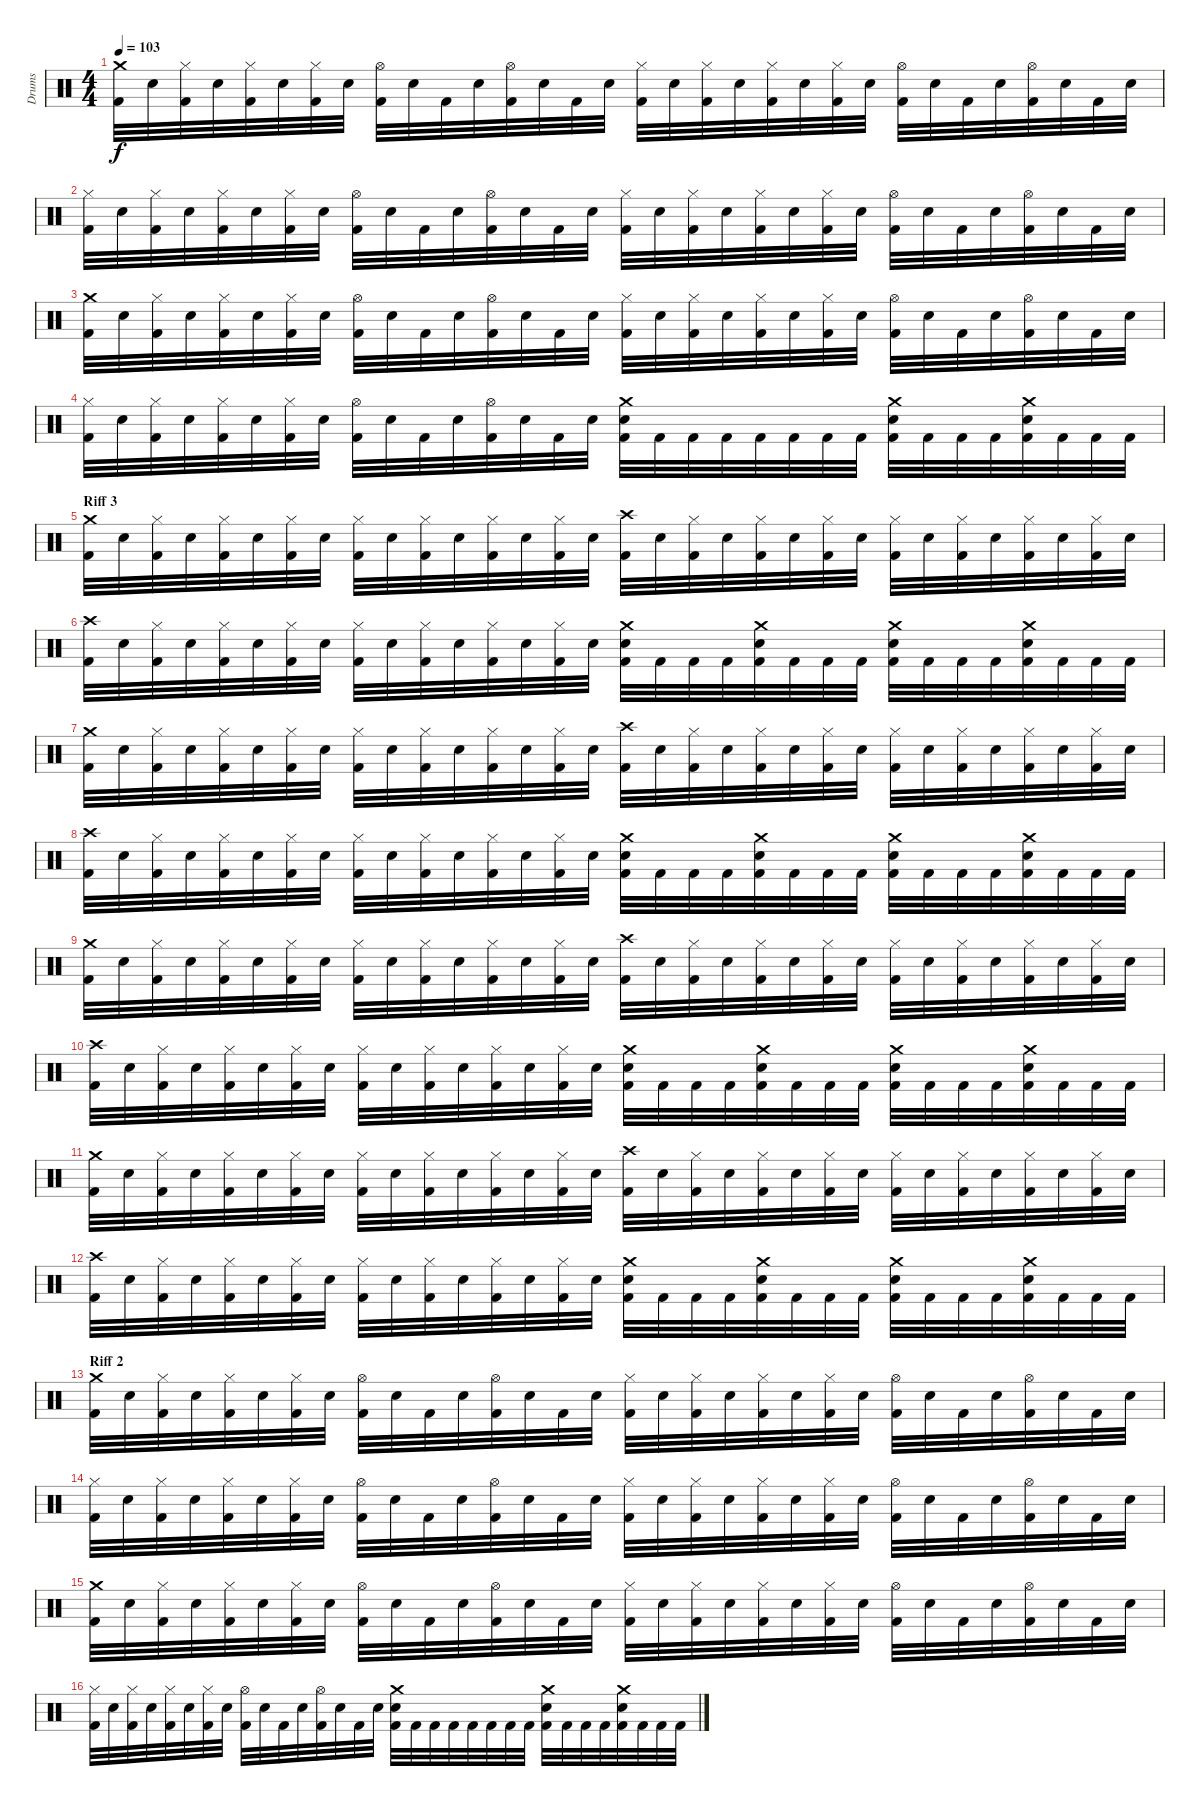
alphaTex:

\track ("Drums" "Drums") {instrument percussion}
\staff {score}
\articulation defaults
\ts (4 4)
\tempo 103
\clef neutral
\ks c
("Crash medium (hit)" "Kick (hit) 2").32{dy f} "Electric Snare (hit)".32 ("Hi-Hat (closed)" "Kick (hit) 2").32 "Electric Snare (hit)".32 ("Hi-Hat (closed)" "Kick (hit) 2").32 "Electric Snare (hit)".32 ("Hi-Hat (closed)" "Kick (hit) 2").32 "Electric Snare (hit)".32 ("Hi-Hat (open)" "Kick (hit) 2").32 "Electric Snare (hit)".32 "Kick (hit) 2".32 "Electric Snare (hit)".32 ("Hi-Hat (open)" "Kick (hit) 2").32 "Electric Snare (hit)".32 "Kick (hit) 2".32 "Electric Snare (hit)".32 ("Hi-Hat (closed)" "Kick (hit) 2").32 "Electric Snare (hit)".32 ("Hi-Hat (closed)" "Kick (hit) 2").32 "Electric Snare (hit)".32 ("Hi-Hat (closed)" "Kick (hit) 2").32 "Electric Snare (hit)".32 ("Hi-Hat (closed)" "Kick (hit) 2").32 "Electric Snare (hit)".32 ("Hi-Hat (open)" "Kick (hit) 2").32 "Electric Snare (hit)".32 "Kick (hit) 2".32 "Electric Snare (hit)".32 ("Hi-Hat (open)" "Kick (hit) 2").32 "Electric Snare (hit)".32 "Kick (hit) 2".32 "Electric Snare (hit)".32 |
("Hi-Hat (closed)" "Kick (hit) 2").32 "Electric Snare (hit)".32 ("Hi-Hat (closed)" "Kick (hit) 2").32 "Electric Snare (hit)".32 ("Hi-Hat (closed)" "Kick (hit) 2").32 "Electric Snare (hit)".32 ("Hi-Hat (closed)" "Kick (hit) 2").32 "Electric Snare (hit)".32 ("Hi-Hat (open)" "Kick (hit) 2").32 "Electric Snare (hit)".32 "Kick (hit) 2".32 "Electric Snare (hit)".32 ("Hi-Hat (open)" "Kick (hit) 2").32 "Electric Snare (hit)".32 "Kick (hit) 2".32 "Electric Snare (hit)".32 ("Hi-Hat (closed)" "Kick (hit) 2").32 "Electric Snare (hit)".32 ("Hi-Hat (closed)" "Kick (hit) 2").32 "Electric Snare (hit)".32 ("Hi-Hat (closed)" "Kick (hit) 2").32 "Electric Snare (hit)".32 ("Hi-Hat (closed)" "Kick (hit) 2").32 "Electric Snare (hit)".32 ("Hi-Hat (open)" "Kick (hit) 2").32 "Electric Snare (hit)".32 "Kick (hit) 2".32 "Electric Snare (hit)".32 ("Hi-Hat (open)" "Kick (hit) 2").32 "Electric Snare (hit)".32 "Kick (hit) 2".32 "Electric Snare (hit)".32 |
("Crash medium (hit)" "Kick (hit) 2").32 "Electric Snare (hit)".32 ("Hi-Hat (closed)" "Kick (hit) 2").32 "Electric Snare (hit)".32 ("Hi-Hat (closed)" "Kick (hit) 2").32 "Electric Snare (hit)".32 ("Hi-Hat (closed)" "Kick (hit) 2").32 "Electric Snare (hit)".32 ("Hi-Hat (open)" "Kick (hit) 2").32 "Electric Snare (hit)".32 "Kick (hit) 2".32 "Electric Snare (hit)".32 ("Hi-Hat (open)" "Kick (hit) 2").32 "Electric Snare (hit)".32 "Kick (hit) 2".32 "Electric Snare (hit)".32 ("Hi-Hat (closed)" "Kick (hit) 2").32 "Electric Snare (hit)".32 ("Hi-Hat (closed)" "Kick (hit) 2").32 "Electric Snare (hit)".32 ("Hi-Hat (closed)" "Kick (hit) 2").32 "Electric Snare (hit)".32 ("Hi-Hat (closed)" "Kick (hit) 2").32 "Electric Snare (hit)".32 ("Hi-Hat (open)" "Kick (hit) 2").32 "Electric Snare (hit)".32 "Kick (hit) 2".32 "Electric Snare (hit)".32 ("Hi-Hat (open)" "Kick (hit) 2").32 "Electric Snare (hit)".32 "Kick (hit) 2".32 "Electric Snare (hit)".32 |
("Hi-Hat (closed)" "Kick (hit) 2").32 "Electric Snare (hit)".32 ("Hi-Hat (closed)" "Kick (hit) 2").32 "Electric Snare (hit)".32 ("Hi-Hat (closed)" "Kick (hit) 2").32 "Electric Snare (hit)".32 ("Hi-Hat (closed)" "Kick (hit) 2").32 "Electric Snare (hit)".32 ("Hi-Hat (open)" "Kick (hit) 2").32 "Electric Snare (hit)".32 "Kick (hit) 2".32 "Electric Snare (hit)".32 ("Hi-Hat (open)" "Kick (hit) 2").32 "Electric Snare (hit)".32 "Kick (hit) 2".32 "Electric Snare (hit)".32 ("Crash medium (hit)" "Electric Snare (hit)" "Kick (hit) 2").32 "Kick (hit) 2".32 "Kick (hit) 2".32 "Kick (hit) 2".32 "Kick (hit) 2".32 "Kick (hit) 2".32 "Kick (hit) 2".32 "Kick (hit) 2".32 ("Crash medium (hit)" "Electric Snare (hit)" "Kick (hit) 2").32 "Kick (hit) 2".32 "Kick (hit) 2".32 "Kick (hit) 2".32 ("Crash medium (hit)" "Electric Snare (hit)" "Kick (hit) 2").32 "Kick (hit) 2".32 "Kick (hit) 2".32 "Kick (hit) 2".32 |
\section ("" "Riff 3")
("Crash medium (hit)" "Kick (hit) 2").32 "Electric Snare (hit)".32 ("Hi-Hat (closed)" "Kick (hit) 2").32 "Electric Snare (hit)".32 ("Hi-Hat (closed)" "Kick (hit) 2").32 "Electric Snare (hit)".32 ("Hi-Hat (closed)" "Kick (hit) 2").32 "Electric Snare (hit)".32 ("Hi-Hat (closed)" "Kick (hit) 2").32 "Electric Snare (hit)".32 ("Hi-Hat (closed)" "Kick (hit) 2").32 "Electric Snare (hit)".32 ("Hi-Hat (closed)" "Kick (hit) 2").32 "Electric Snare (hit)".32 ("Hi-Hat (closed)" "Kick (hit) 2").32 "Electric Snare (hit)".32 ("Crash high (hit)" "Kick (hit) 2").32 "Electric Snare (hit)".32 ("Hi-Hat (closed)" "Kick (hit) 2").32 "Electric Snare (hit)".32 ("Hi-Hat (closed)" "Kick (hit) 2").32 "Electric Snare (hit)".32 ("Hi-Hat (closed)" "Kick (hit) 2").32 "Electric Snare (hit)".32 ("Hi-Hat (closed)" "Kick (hit) 2").32 "Electric Snare (hit)".32 ("Hi-Hat (closed)" "Kick (hit) 2").32 "Electric Snare (hit)".32 ("Hi-Hat (closed)" "Kick (hit) 2").32 "Electric Snare (hit)".32 ("Hi-Hat (closed)" "Kick (hit) 2").32 "Electric Snare (hit)".32 |
("Crash high (hit)" "Kick (hit) 2").32 "Electric Snare (hit)".32 ("Hi-Hat (closed)" "Kick (hit) 2").32 "Electric Snare (hit)".32 ("Hi-Hat (closed)" "Kick (hit) 2").32 "Electric Snare (hit)".32 ("Hi-Hat (closed)" "Kick (hit) 2").32 "Electric Snare (hit)".32 ("Hi-Hat (closed)" "Kick (hit) 2").32 "Electric Snare (hit)".32 ("Hi-Hat (closed)" "Kick (hit) 2").32 "Electric Snare (hit)".32 ("Hi-Hat (closed)" "Kick (hit) 2").32 "Electric Snare (hit)".32 ("Hi-Hat (closed)" "Kick (hit) 2").32 "Electric Snare (hit)".32 ("Crash medium (hit)" "Electric Snare (hit)" "Kick (hit) 2").32 "Kick (hit) 2".32 "Kick (hit) 2".32 "Kick (hit) 2".32 ("Crash medium (hit)" "Electric Snare (hit)" "Kick (hit) 2").32 "Kick (hit) 2".32 "Kick (hit) 2".32 "Kick (hit) 2".32 ("Crash medium (hit)" "Electric Snare (hit)" "Kick (hit) 2").32 "Kick (hit) 2".32 "Kick (hit) 2".32 "Kick (hit) 2".32 ("Crash medium (hit)" "Electric Snare (hit)" "Kick (hit) 2").32 "Kick (hit) 2".32 "Kick (hit) 2".32 "Kick (hit) 2".32 |
("Crash medium (hit)" "Kick (hit) 2").32 "Electric Snare (hit)".32 ("Hi-Hat (closed)" "Kick (hit) 2").32 "Electric Snare (hit)".32 ("Hi-Hat (closed)" "Kick (hit) 2").32 "Electric Snare (hit)".32 ("Hi-Hat (closed)" "Kick (hit) 2").32 "Electric Snare (hit)".32 ("Hi-Hat (closed)" "Kick (hit) 2").32 "Electric Snare (hit)".32 ("Hi-Hat (closed)" "Kick (hit) 2").32 "Electric Snare (hit)".32 ("Hi-Hat (closed)" "Kick (hit) 2").32 "Electric Snare (hit)".32 ("Hi-Hat (closed)" "Kick (hit) 2").32 "Electric Snare (hit)".32 ("Crash high (hit)" "Kick (hit) 2").32 "Electric Snare (hit)".32 ("Hi-Hat (closed)" "Kick (hit) 2").32 "Electric Snare (hit)".32 ("Hi-Hat (closed)" "Kick (hit) 2").32 "Electric Snare (hit)".32 ("Hi-Hat (closed)" "Kick (hit) 2").32 "Electric Snare (hit)".32 ("Hi-Hat (closed)" "Kick (hit) 2").32 "Electric Snare (hit)".32 ("Hi-Hat (closed)" "Kick (hit) 2").32 "Electric Snare (hit)".32 ("Hi-Hat (closed)" "Kick (hit) 2").32 "Electric Snare (hit)".32 ("Hi-Hat (closed)" "Kick (hit) 2").32 "Electric Snare (hit)".32 |
("Crash high (hit)" "Kick (hit) 2").32 "Electric Snare (hit)".32 ("Hi-Hat (closed)" "Kick (hit) 2").32 "Electric Snare (hit)".32 ("Hi-Hat (closed)" "Kick (hit) 2").32 "Electric Snare (hit)".32 ("Hi-Hat (closed)" "Kick (hit) 2").32 "Electric Snare (hit)".32 ("Hi-Hat (closed)" "Kick (hit) 2").32 "Electric Snare (hit)".32 ("Hi-Hat (closed)" "Kick (hit) 2").32 "Electric Snare (hit)".32 ("Hi-Hat (closed)" "Kick (hit) 2").32 "Electric Snare (hit)".32 ("Hi-Hat (closed)" "Kick (hit) 2").32 "Electric Snare (hit)".32 ("Crash medium (hit)" "Electric Snare (hit)" "Kick (hit) 2").32 "Kick (hit) 2".32 "Kick (hit) 2".32 "Kick (hit) 2".32 ("Crash medium (hit)" "Electric Snare (hit)" "Kick (hit) 2").32 "Kick (hit) 2".32 "Kick (hit) 2".32 "Kick (hit) 2".32 ("Crash medium (hit)" "Electric Snare (hit)" "Kick (hit) 2").32 "Kick (hit) 2".32 "Kick (hit) 2".32 "Kick (hit) 2".32 ("Crash medium (hit)" "Electric Snare (hit)" "Kick (hit) 2").32 "Kick (hit) 2".32 "Kick (hit) 2".32 "Kick (hit) 2".32 |
("Crash medium (hit)" "Kick (hit) 2").32 "Electric Snare (hit)".32 ("Hi-Hat (closed)" "Kick (hit) 2").32 "Electric Snare (hit)".32 ("Hi-Hat (closed)" "Kick (hit) 2").32 "Electric Snare (hit)".32 ("Hi-Hat (closed)" "Kick (hit) 2").32 "Electric Snare (hit)".32 ("Hi-Hat (closed)" "Kick (hit) 2").32 "Electric Snare (hit)".32 ("Hi-Hat (closed)" "Kick (hit) 2").32 "Electric Snare (hit)".32 ("Hi-Hat (closed)" "Kick (hit) 2").32 "Electric Snare (hit)".32 ("Hi-Hat (closed)" "Kick (hit) 2").32 "Electric Snare (hit)".32 ("Crash high (hit)" "Kick (hit) 2").32 "Electric Snare (hit)".32 ("Hi-Hat (closed)" "Kick (hit) 2").32 "Electric Snare (hit)".32 ("Hi-Hat (closed)" "Kick (hit) 2").32 "Electric Snare (hit)".32 ("Hi-Hat (closed)" "Kick (hit) 2").32 "Electric Snare (hit)".32 ("Hi-Hat (closed)" "Kick (hit) 2").32 "Electric Snare (hit)".32 ("Hi-Hat (closed)" "Kick (hit) 2").32 "Electric Snare (hit)".32 ("Hi-Hat (closed)" "Kick (hit) 2").32 "Electric Snare (hit)".32 ("Hi-Hat (closed)" "Kick (hit) 2").32 "Electric Snare (hit)".32 |
("Crash high (hit)" "Kick (hit) 2").32 "Electric Snare (hit)".32 ("Hi-Hat (closed)" "Kick (hit) 2").32 "Electric Snare (hit)".32 ("Hi-Hat (closed)" "Kick (hit) 2").32 "Electric Snare (hit)".32 ("Hi-Hat (closed)" "Kick (hit) 2").32 "Electric Snare (hit)".32 ("Hi-Hat (closed)" "Kick (hit) 2").32 "Electric Snare (hit)".32 ("Hi-Hat (closed)" "Kick (hit) 2").32 "Electric Snare (hit)".32 ("Hi-Hat (closed)" "Kick (hit) 2").32 "Electric Snare (hit)".32 ("Hi-Hat (closed)" "Kick (hit) 2").32 "Electric Snare (hit)".32 ("Crash medium (hit)" "Electric Snare (hit)" "Kick (hit) 2").32 "Kick (hit) 2".32 "Kick (hit) 2".32 "Kick (hit) 2".32 ("Crash medium (hit)" "Electric Snare (hit)" "Kick (hit) 2").32 "Kick (hit) 2".32 "Kick (hit) 2".32 "Kick (hit) 2".32 ("Crash medium (hit)" "Electric Snare (hit)" "Kick (hit) 2").32 "Kick (hit) 2".32 "Kick (hit) 2".32 "Kick (hit) 2".32 ("Crash medium (hit)" "Electric Snare (hit)" "Kick (hit) 2").32 "Kick (hit) 2".32 "Kick (hit) 2".32 "Kick (hit) 2".32 |
("Crash medium (hit)" "Kick (hit) 2").32 "Electric Snare (hit)".32 ("Hi-Hat (closed)" "Kick (hit) 2").32 "Electric Snare (hit)".32 ("Hi-Hat (closed)" "Kick (hit) 2").32 "Electric Snare (hit)".32 ("Hi-Hat (closed)" "Kick (hit) 2").32 "Electric Snare (hit)".32 ("Hi-Hat (closed)" "Kick (hit) 2").32 "Electric Snare (hit)".32 ("Hi-Hat (closed)" "Kick (hit) 2").32 "Electric Snare (hit)".32 ("Hi-Hat (closed)" "Kick (hit) 2").32 "Electric Snare (hit)".32 ("Hi-Hat (closed)" "Kick (hit) 2").32 "Electric Snare (hit)".32 ("Crash high (hit)" "Kick (hit) 2").32 "Electric Snare (hit)".32 ("Hi-Hat (closed)" "Kick (hit) 2").32 "Electric Snare (hit)".32 ("Hi-Hat (closed)" "Kick (hit) 2").32 "Electric Snare (hit)".32 ("Hi-Hat (closed)" "Kick (hit) 2").32 "Electric Snare (hit)".32 ("Hi-Hat (closed)" "Kick (hit) 2").32 "Electric Snare (hit)".32 ("Hi-Hat (closed)" "Kick (hit) 2").32 "Electric Snare (hit)".32 ("Hi-Hat (closed)" "Kick (hit) 2").32 "Electric Snare (hit)".32 ("Hi-Hat (closed)" "Kick (hit) 2").32 "Electric Snare (hit)".32 |
("Crash high (hit)" "Kick (hit) 2").32 "Electric Snare (hit)".32 ("Hi-Hat (closed)" "Kick (hit) 2").32 "Electric Snare (hit)".32 ("Hi-Hat (closed)" "Kick (hit) 2").32 "Electric Snare (hit)".32 ("Hi-Hat (closed)" "Kick (hit) 2").32 "Electric Snare (hit)".32 ("Hi-Hat (closed)" "Kick (hit) 2").32 "Electric Snare (hit)".32 ("Hi-Hat (closed)" "Kick (hit) 2").32 "Electric Snare (hit)".32 ("Hi-Hat (closed)" "Kick (hit) 2").32 "Electric Snare (hit)".32 ("Hi-Hat (closed)" "Kick (hit) 2").32 "Electric Snare (hit)".32 ("Crash medium (hit)" "Electric Snare (hit)" "Kick (hit) 2").32 "Kick (hit) 2".32 "Kick (hit) 2".32 "Kick (hit) 2".32 ("Crash medium (hit)" "Electric Snare (hit)" "Kick (hit) 2").32 "Kick (hit) 2".32 "Kick (hit) 2".32 "Kick (hit) 2".32 ("Crash medium (hit)" "Electric Snare (hit)" "Kick (hit) 2").32 "Kick (hit) 2".32 "Kick (hit) 2".32 "Kick (hit) 2".32 ("Crash medium (hit)" "Electric Snare (hit)" "Kick (hit) 2").32 "Kick (hit) 2".32 "Kick (hit) 2".32 "Kick (hit) 2".32 |
\section ("" "Riff 2")
("Crash medium (hit)" "Kick (hit) 2").32 "Electric Snare (hit)".32 ("Hi-Hat (closed)" "Kick (hit) 2").32 "Electric Snare (hit)".32 ("Hi-Hat (closed)" "Kick (hit) 2").32 "Electric Snare (hit)".32 ("Hi-Hat (closed)" "Kick (hit) 2").32 "Electric Snare (hit)".32 ("Hi-Hat (open)" "Kick (hit) 2").32 "Electric Snare (hit)".32 "Kick (hit) 2".32 "Electric Snare (hit)".32 ("Hi-Hat (open)" "Kick (hit) 2").32 "Electric Snare (hit)".32 "Kick (hit) 2".32 "Electric Snare (hit)".32 ("Hi-Hat (closed)" "Kick (hit) 2").32 "Electric Snare (hit)".32 ("Hi-Hat (closed)" "Kick (hit) 2").32 "Electric Snare (hit)".32 ("Hi-Hat (closed)" "Kick (hit) 2").32 "Electric Snare (hit)".32 ("Hi-Hat (closed)" "Kick (hit) 2").32 "Electric Snare (hit)".32 ("Hi-Hat (open)" "Kick (hit) 2").32 "Electric Snare (hit)".32 "Kick (hit) 2".32 "Electric Snare (hit)".32 ("Hi-Hat (open)" "Kick (hit) 2").32 "Electric Snare (hit)".32 "Kick (hit) 2".32 "Electric Snare (hit)".32 |
("Hi-Hat (closed)" "Kick (hit) 2").32 "Electric Snare (hit)".32 ("Hi-Hat (closed)" "Kick (hit) 2").32 "Electric Snare (hit)".32 ("Hi-Hat (closed)" "Kick (hit) 2").32 "Electric Snare (hit)".32 ("Hi-Hat (closed)" "Kick (hit) 2").32 "Electric Snare (hit)".32 ("Hi-Hat (open)" "Kick (hit) 2").32 "Electric Snare (hit)".32 "Kick (hit) 2".32 "Electric Snare (hit)".32 ("Hi-Hat (open)" "Kick (hit) 2").32 "Electric Snare (hit)".32 "Kick (hit) 2".32 "Electric Snare (hit)".32 ("Hi-Hat (closed)" "Kick (hit) 2").32 "Electric Snare (hit)".32 ("Hi-Hat (closed)" "Kick (hit) 2").32 "Electric Snare (hit)".32 ("Hi-Hat (closed)" "Kick (hit) 2").32 "Electric Snare (hit)".32 ("Hi-Hat (closed)" "Kick (hit) 2").32 "Electric Snare (hit)".32 ("Hi-Hat (open)" "Kick (hit) 2").32 "Electric Snare (hit)".32 "Kick (hit) 2".32 "Electric Snare (hit)".32 ("Hi-Hat (open)" "Kick (hit) 2").32 "Electric Snare (hit)".32 "Kick (hit) 2".32 "Electric Snare (hit)".32 |
("Crash medium (hit)" "Kick (hit) 2").32 "Electric Snare (hit)".32 ("Hi-Hat (closed)" "Kick (hit) 2").32 "Electric Snare (hit)".32 ("Hi-Hat (closed)" "Kick (hit) 2").32 "Electric Snare (hit)".32 ("Hi-Hat (closed)" "Kick (hit) 2").32 "Electric Snare (hit)".32 ("Hi-Hat (open)" "Kick (hit) 2").32 "Electric Snare (hit)".32 "Kick (hit) 2".32 "Electric Snare (hit)".32 ("Hi-Hat (open)" "Kick (hit) 2").32 "Electric Snare (hit)".32 "Kick (hit) 2".32 "Electric Snare (hit)".32 ("Hi-Hat (closed)" "Kick (hit) 2").32 "Electric Snare (hit)".32 ("Hi-Hat (closed)" "Kick (hit) 2").32 "Electric Snare (hit)".32 ("Hi-Hat (closed)" "Kick (hit) 2").32 "Electric Snare (hit)".32 ("Hi-Hat (closed)" "Kick (hit) 2").32 "Electric Snare (hit)".32 ("Hi-Hat (open)" "Kick (hit) 2").32 "Electric Snare (hit)".32 "Kick (hit) 2".32 "Electric Snare (hit)".32 ("Hi-Hat (open)" "Kick (hit) 2").32 "Electric Snare (hit)".32 "Kick (hit) 2".32 "Electric Snare (hit)".32 |
("Hi-Hat (closed)" "Kick (hit) 2").32 "Electric Snare (hit)".32 ("Hi-Hat (closed)" "Kick (hit) 2").32 "Electric Snare (hit)".32 ("Hi-Hat (closed)" "Kick (hit) 2").32 "Electric Snare (hit)".32 ("Hi-Hat (closed)" "Kick (hit) 2").32 "Electric Snare (hit)".32 ("Hi-Hat (open)" "Kick (hit) 2").32 "Electric Snare (hit)".32 "Kick (hit) 2".32 "Electric Snare (hit)".32 ("Hi-Hat (open)" "Kick (hit) 2").32 "Electric Snare (hit)".32 "Kick (hit) 2".32 "Electric Snare (hit)".32 ("Crash medium (hit)" "Electric Snare (hit)" "Kick (hit) 2").32 "Kick (hit) 2".32 "Kick (hit) 2".32 "Kick (hit) 2".32 "Kick (hit) 2".32 "Kick (hit) 2".32 "Kick (hit) 2".32 "Kick (hit) 2".32 ("Crash medium (hit)" "Electric Snare (hit)" "Kick (hit) 2").32 "Kick (hit) 2".32 "Kick (hit) 2".32 "Kick (hit) 2".32 ("Crash medium (hit)" "Electric Snare (hit)" "Kick (hit) 2").32 "Kick (hit) 2".32 "Kick (hit) 2".32 "Kick (hit) 2".32
